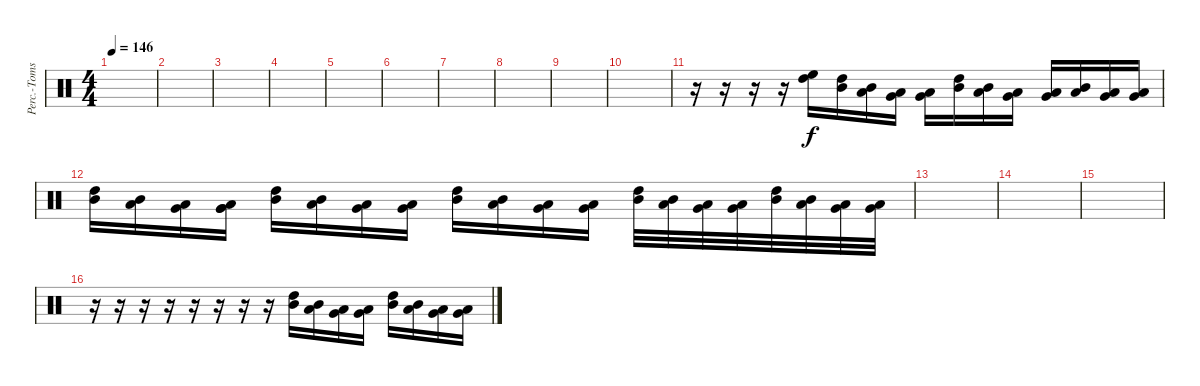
\track ("Perc.-Toms 1" "Perc.-Toms") {instrument percussion}
\staff {score}
\articulation defaults
\ts (4 4)
\tempo 146
\clef neutral
\ks c
|
|
|
|
|
|
|
|
|
|
r.16 r.16 r.16 r.16 ("High Floor Tom (hit)" "High Tom (hit)").16 ("High Tom (hit)" "Mid Tom (hit)").16 ("Mid Tom (hit)" "Low Tom (hit)").16 ("Low Tom (hit)" "Very Low Tom (hit)").16 ("Very Low Tom (hit)" "Low Floor Tom (hit)").16 ("High Tom (hit)" "Mid Tom (hit)").16 ("Mid Tom (hit)" "Low Tom (hit)").16 ("Low Tom (hit)" "Very Low Tom (hit)").16 ("Very Low Tom (hit)" "Low Floor Tom (hit)").16 ("Mid Tom (hit)" "Low Tom (hit)").16 ("Low Tom (hit)" "Very Low Tom (hit)").16 ("Very Low Tom (hit)" "Low Floor Tom (hit)").16 |
("High Tom (hit)" "Mid Tom (hit)").16 ("Mid Tom (hit)" "Low Tom (hit)").16 ("Low Tom (hit)" "Very Low Tom (hit)").16 ("Very Low Tom (hit)" "Very Low Tom (hit)" "Low Floor Tom (hit)").16 ("High Tom (hit)" "Mid Tom (hit)").16 ("Mid Tom (hit)" "Low Tom (hit)").16 ("Low Tom (hit)" "Very Low Tom (hit)").16 ("Very Low Tom (hit)" "Low Floor Tom (hit)").16 ("High Tom (hit)" "Mid Tom (hit)").16 ("Mid Tom (hit)" "Low Tom (hit)").16 ("Low Tom (hit)" "Very Low Tom (hit)").16 ("Very Low Tom (hit)" "Low Floor Tom (hit)").16 ("High Tom (hit)" "Mid Tom (hit)").32 ("Mid Tom (hit)" "Low Tom (hit)").32 ("Low Tom (hit)" "Very Low Tom (hit)").32 ("Very Low Tom (hit)" "Low Floor Tom (hit)").32 ("High Tom (hit)" "Mid Tom (hit)").32 ("Mid Tom (hit)" "Low Tom (hit)").32 ("Low Tom (hit)" "Very Low Tom (hit)").32 ("Very Low Tom (hit)" "Low Floor Tom (hit)").32 |
|
|
|
r.16 r.16 r.16 r.16 r.16 r.16 r.16 r.16 ("High Tom (hit)" "Mid Tom (hit)").16 ("Mid Tom (hit)" "Low Tom (hit)").16 ("Low Tom (hit)" "Very Low Tom (hit)").16 ("Very Low Tom (hit)" "Low Floor Tom (hit)").16 ("High Tom (hit)" "Mid Tom (hit)").16 ("Mid Tom (hit)" "Low Tom (hit)").16 ("Low Tom (hit)" "Very Low Tom (hit)").16 ("Very Low Tom (hit)" "Low Floor Tom (hit)").16
